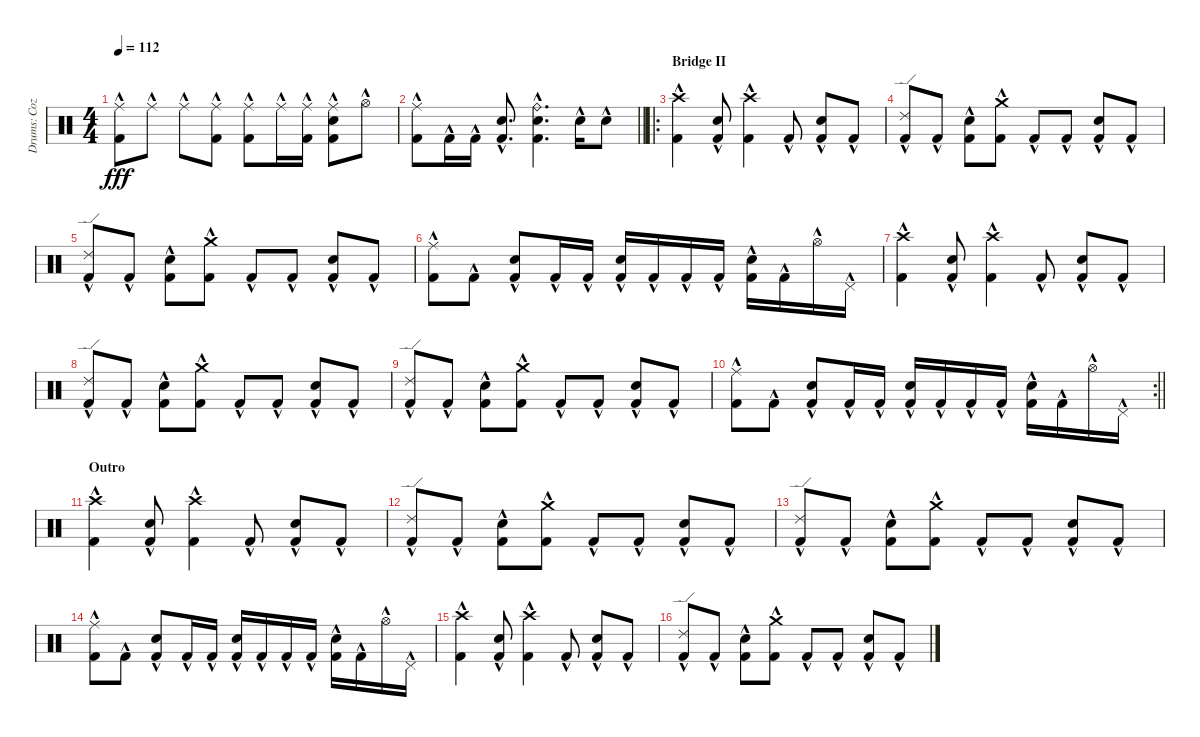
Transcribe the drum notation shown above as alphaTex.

\track ("Drums: Cozy" "Drums: Coz") {instrument percussion}
\staff {score}
\articulation defaults
\ts (4 4)
\tempo 112
\clef neutral
\ks c
("Ride (middle)"{hac} "Kick (hit) 2"{hac}).8{dy fff} "Ride (middle)"{hac}.8 "Ride (middle)"{hac}.8 ("Ride (middle)"{hac} "Kick (hit) 2"{hac}).8 ("Ride (middle)"{hac} "Kick (hit) 2"{hac}).8 "Ride (middle)"{hac}.16 ("Ride (middle)"{hac} "Kick (hit) 2"{hac}).16 ("Ride (middle)"{hac} "Electric Snare (hit)"{hac} "Kick (hit) 2"{hac}).8 "Hi-Hat (open)"{hac}.8 |
\barLineRight lightlight
("Ride (middle)"{hac} "Kick (hit) 2"{hac}).8 "Kick (hit) 2"{hac}.16 "Kick (hit) 2"{hac}.16 ("Snare (hit) 2"{hac} "Kick (hit) 2"{hac}).8{d} ("Ride (bell)"{hac} "Snare (hit) 2"{hac} "Kick (hit) 2"{hac}).4{d} "Snare (hit) 2"{hac}.16 "Snare (hit) 2"{hac}.8 |
\ro
\section ("" "Bridge II")
("Crash high (hit)"{hac} "Kick (hit) 2"{hac}).4 ("Snare (hit) 2"{hac} "Kick (hit) 2"{hac}).8 ("Crash high (hit)"{hac} "Kick (hit) 2"{hac}).4 "Kick (hit) 2"{hac}.8 ("Snare (hit) 2"{hac} "Kick (hit) 2"{hac}).8 "Kick (hit) 2"{hac}.8 |
("Ride (edge) 2"{hac} "Kick (hit) 2"{hac}).8 "Kick (hit) 2"{hac}.8 ("Snare (hit) 2"{hac} "Kick (hit) 2"{hac}).8 ("Crash medium (hit)"{hac} "Kick (hit) 2"{hac}).8 "Kick (hit) 2"{hac}.8 "Kick (hit) 2"{hac}.8 ("Snare (hit) 2"{hac} "Kick (hit) 2"{hac}).8 "Kick (hit) 2"{hac}.8 |
("Ride (edge) 2"{hac} "Kick (hit) 2"{hac}).8 "Kick (hit) 2"{hac}.8 ("Snare (hit) 2"{hac} "Kick (hit) 2"{hac}).8 ("Crash medium (hit)"{hac} "Kick (hit) 2"{hac}).8 "Kick (hit) 2"{hac}.8 "Kick (hit) 2"{hac}.8 ("Snare (hit) 2"{hac} "Kick (hit) 2"{hac}).8 "Kick (hit) 2"{hac}.8 |
("Ride (middle)"{hac} "Kick (hit) 2"{hac}).8 "Kick (hit) 2"{hac}.8 ("Snare (hit) 2"{hac} "Kick (hit) 2"{hac}).8 "Kick (hit) 2"{hac}.16 "Kick (hit) 2"{hac}.16 ("Snare (hit) 2"{hac} "Kick (hit) 2"{hac}).16 "Kick (hit) 2"{hac}.16 "Kick (hit) 2"{hac}.16 "Kick (hit) 2"{hac}.16 ("Snare (hit) 2"{hac} "Kick (hit) 2"{hac}).16 "Kick (hit) 2"{hac}.16 "Hi-Hat (open)"{hac}.16 "Pedal Hi-Hat (hit)"{hac}.16 |
("Crash high (hit)"{hac} "Kick (hit) 2"{hac}).4 ("Snare (hit) 2"{hac} "Kick (hit) 2"{hac}).8 ("Crash high (hit)"{hac} "Kick (hit) 2"{hac}).4 "Kick (hit) 2"{hac}.8 ("Snare (hit) 2"{hac} "Kick (hit) 2"{hac}).8 "Kick (hit) 2"{hac}.8 |
("Ride (edge) 2"{hac} "Kick (hit) 2"{hac}).8 "Kick (hit) 2"{hac}.8 ("Snare (hit) 2"{hac} "Kick (hit) 2"{hac}).8 ("Crash medium (hit)"{hac} "Kick (hit) 2"{hac}).8 "Kick (hit) 2"{hac}.8 "Kick (hit) 2"{hac}.8 ("Snare (hit) 2"{hac} "Kick (hit) 2"{hac}).8 "Kick (hit) 2"{hac}.8 |
("Ride (edge) 2"{hac} "Kick (hit) 2"{hac}).8 "Kick (hit) 2"{hac}.8 ("Snare (hit) 2"{hac} "Kick (hit) 2"{hac}).8 ("Crash medium (hit)"{hac} "Kick (hit) 2"{hac}).8 "Kick (hit) 2"{hac}.8 "Kick (hit) 2"{hac}.8 ("Snare (hit) 2"{hac} "Kick (hit) 2"{hac}).8 "Kick (hit) 2"{hac}.8 |
\rc 2
\barLineRight lightlight
("Ride (middle)"{hac} "Kick (hit) 2"{hac}).8 "Kick (hit) 2"{hac}.8 ("Snare (hit) 2"{hac} "Kick (hit) 2"{hac}).8 "Kick (hit) 2"{hac}.16 "Kick (hit) 2"{hac}.16 ("Snare (hit) 2"{hac} "Kick (hit) 2"{hac}).16 "Kick (hit) 2"{hac}.16 "Kick (hit) 2"{hac}.16 "Kick (hit) 2"{hac}.16 ("Snare (hit) 2"{hac} "Kick (hit) 2"{hac}).16 "Kick (hit) 2"{hac}.16 "Hi-Hat (open)"{hac}.16 "Pedal Hi-Hat (hit)"{hac}.16 |
\section ("" "Outro")
("Crash high (hit)"{hac} "Kick (hit) 2"{hac}).4 ("Snare (hit) 2"{hac} "Kick (hit) 2"{hac}).8 ("Crash high (hit)"{hac} "Kick (hit) 2"{hac}).4 "Kick (hit) 2"{hac}.8 ("Snare (hit) 2"{hac} "Kick (hit) 2"{hac}).8 "Kick (hit) 2"{hac}.8 |
("Ride (edge) 2"{hac} "Kick (hit) 2"{hac}).8 "Kick (hit) 2"{hac}.8 ("Snare (hit) 2"{hac} "Kick (hit) 2"{hac}).8 ("Crash medium (hit)"{hac} "Kick (hit) 2"{hac}).8 "Kick (hit) 2"{hac}.8 "Kick (hit) 2"{hac}.8 ("Snare (hit) 2"{hac} "Kick (hit) 2"{hac}).8 "Kick (hit) 2"{hac}.8 |
("Ride (edge) 2"{hac} "Kick (hit) 2"{hac}).8 "Kick (hit) 2"{hac}.8 ("Snare (hit) 2"{hac} "Kick (hit) 2"{hac}).8 ("Crash medium (hit)"{hac} "Kick (hit) 2"{hac}).8 "Kick (hit) 2"{hac}.8 "Kick (hit) 2"{hac}.8 ("Snare (hit) 2"{hac} "Kick (hit) 2"{hac}).8 "Kick (hit) 2"{hac}.8 |
("Ride (middle)"{hac} "Kick (hit) 2"{hac}).8 "Kick (hit) 2"{hac}.8 ("Snare (hit) 2"{hac} "Kick (hit) 2"{hac}).8 "Kick (hit) 2"{hac}.16 "Kick (hit) 2"{hac}.16 ("Snare (hit) 2"{hac} "Kick (hit) 2"{hac}).16 "Kick (hit) 2"{hac}.16 "Kick (hit) 2"{hac}.16 "Kick (hit) 2"{hac}.16 ("Snare (hit) 2"{hac} "Kick (hit) 2"{hac}).16 "Kick (hit) 2"{hac}.16 "Hi-Hat (open)"{hac}.16 "Pedal Hi-Hat (hit)"{hac}.16 |
("Crash high (hit)"{hac} "Kick (hit) 2"{hac}).4 ("Snare (hit) 2"{hac} "Kick (hit) 2"{hac}).8 ("Crash high (hit)"{hac} "Kick (hit) 2"{hac}).4 "Kick (hit) 2"{hac}.8 ("Snare (hit) 2"{hac} "Kick (hit) 2"{hac}).8 "Kick (hit) 2"{hac}.8 |
("Ride (edge) 2"{hac} "Kick (hit) 2"{hac}).8 "Kick (hit) 2"{hac}.8 ("Snare (hit) 2"{hac} "Kick (hit) 2"{hac}).8 ("Crash medium (hit)"{hac} "Kick (hit) 2"{hac}).8 "Kick (hit) 2"{hac}.8 "Kick (hit) 2"{hac}.8 ("Snare (hit) 2"{hac} "Kick (hit) 2"{hac}).8 "Kick (hit) 2"{hac}.8
